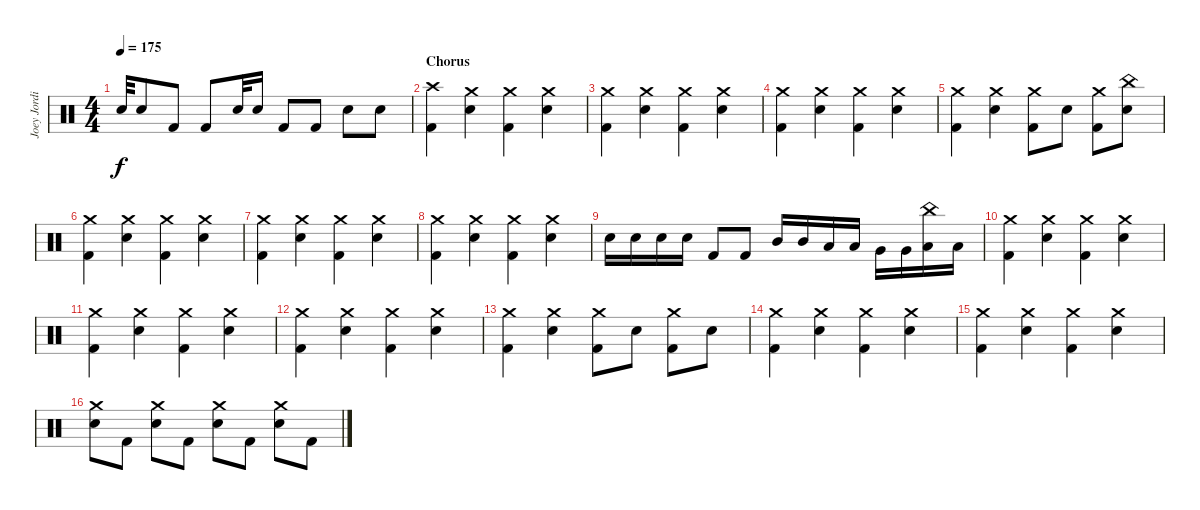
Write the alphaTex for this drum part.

\track ("Joey Jordison (Drums)" "Joey Jordi") {instrument percussion}
\staff {score}
\articulation defaults
\ts (4 4)
\tempo 175
\clef neutral
\ks c "Electric Snare (hit)".32{dy f} "Electric Snare (hit)".8 "Kick (hit) 2".8 "Kick (hit) 2".8 "Electric Snare (hit)".32 "Electric Snare (hit)".16 "Kick (hit) 2".8 "Kick (hit) 2".8 "Electric Snare (hit)".8 "Electric Snare (hit)".8
|
\section ("" "Chorus")
("Crash high (hit)" "Kick (hit) 2").4 ("Crash medium (hit)" "Electric Snare (hit)").4 ("Crash medium (hit)" "Kick (hit) 2").4 ("Crash medium (hit)" "Electric Snare (hit)").4 |
("Crash medium (hit)" "Kick (hit) 2").4 ("Crash medium (hit)" "Electric Snare (hit)").4 ("Crash medium (hit)" "Kick (hit) 2").4 ("Crash medium (hit)" "Electric Snare (hit)").4 |
("Crash medium (hit)" "Kick (hit) 2").4 ("Crash medium (hit)" "Electric Snare (hit)").4 ("Crash medium (hit)" "Kick (hit) 2").4 ("Crash medium (hit)" "Electric Snare (hit)").4 |
("Crash medium (hit)" "Kick (hit) 2").4 ("Crash medium (hit)" "Electric Snare (hit)").4 ("Crash medium (hit)" "Kick (hit) 2").8 "Electric Snare (hit)".8 ("Crash medium (hit)" "Kick (hit) 2").8 ("China (hit)" "Electric Snare (hit)").8 |
("Crash medium (hit)" "Kick (hit) 2").4 ("Crash medium (hit)" "Electric Snare (hit)").4 ("Crash medium (hit)" "Kick (hit) 2").4 ("Crash medium (hit)" "Electric Snare (hit)").4 |
("Crash medium (hit)" "Kick (hit) 2").4 ("Crash medium (hit)" "Electric Snare (hit)").4 ("Crash medium (hit)" "Kick (hit) 2").4 ("Crash medium (hit)" "Electric Snare (hit)").4 |
("Crash medium (hit)" "Kick (hit) 2").4 ("Crash medium (hit)" "Electric Snare (hit)").4 ("Crash medium (hit)" "Kick (hit) 2").4 ("Crash medium (hit)" "Electric Snare (hit)").4 |
"Electric Snare (hit)".16 "Electric Snare (hit)".16 "Electric Snare (hit)".16 "Electric Snare (hit)".16 "Kick (hit) 2".8 "Kick (hit) 2".8 "Mid Tom (hit)".16 "Mid Tom (hit)".16 "Low Tom (hit)".16 "Low Tom (hit)".16 "Very Low Tom (hit)".16 "Very Low Tom (hit)".16 ("China (hit)" "Low Floor Tom (hit)").16 "Low Floor Tom (hit)".16 |
("Crash medium (hit)" "Kick (hit) 2").4 ("Crash medium (hit)" "Electric Snare (hit)").4 ("Crash medium (hit)" "Kick (hit) 2").4 ("Crash medium (hit)" "Electric Snare (hit)").4 |
("Crash medium (hit)" "Kick (hit) 2").4 ("Crash medium (hit)" "Electric Snare (hit)").4 ("Crash medium (hit)" "Kick (hit) 2").4 ("Crash medium (hit)" "Electric Snare (hit)").4 |
("Crash medium (hit)" "Kick (hit) 2").4 ("Crash medium (hit)" "Electric Snare (hit)").4 ("Crash medium (hit)" "Kick (hit) 2").4 ("Crash medium (hit)" "Electric Snare (hit)").4 |
("Crash medium (hit)" "Kick (hit) 2").4 ("Crash medium (hit)" "Electric Snare (hit)").4 ("Crash medium (hit)" "Kick (hit) 2").8 "Electric Snare (hit)".8 ("Crash medium (hit)" "Kick (hit) 2").8 "Electric Snare (hit)".8 |
("Crash medium (hit)" "Kick (hit) 2").4 ("Crash medium (hit)" "Electric Snare (hit)").4 ("Crash medium (hit)" "Kick (hit) 2").4 ("Crash medium (hit)" "Electric Snare (hit)").4 |
("Crash medium (hit)" "Kick (hit) 2").4 ("Crash medium (hit)" "Electric Snare (hit)").4 ("Crash medium (hit)" "Kick (hit) 2").4 ("Crash medium (hit)" "Electric Snare (hit)").4 |
("Crash medium (hit)" "Electric Snare (hit)").8 "Kick (hit) 2".8 ("Crash medium (hit)" "Electric Snare (hit)").8 "Kick (hit) 2".8 ("Crash medium (hit)" "Electric Snare (hit)").8 "Kick (hit) 2".8 ("Crash medium (hit)" "Electric Snare (hit)").8 "Kick (hit) 2".8
